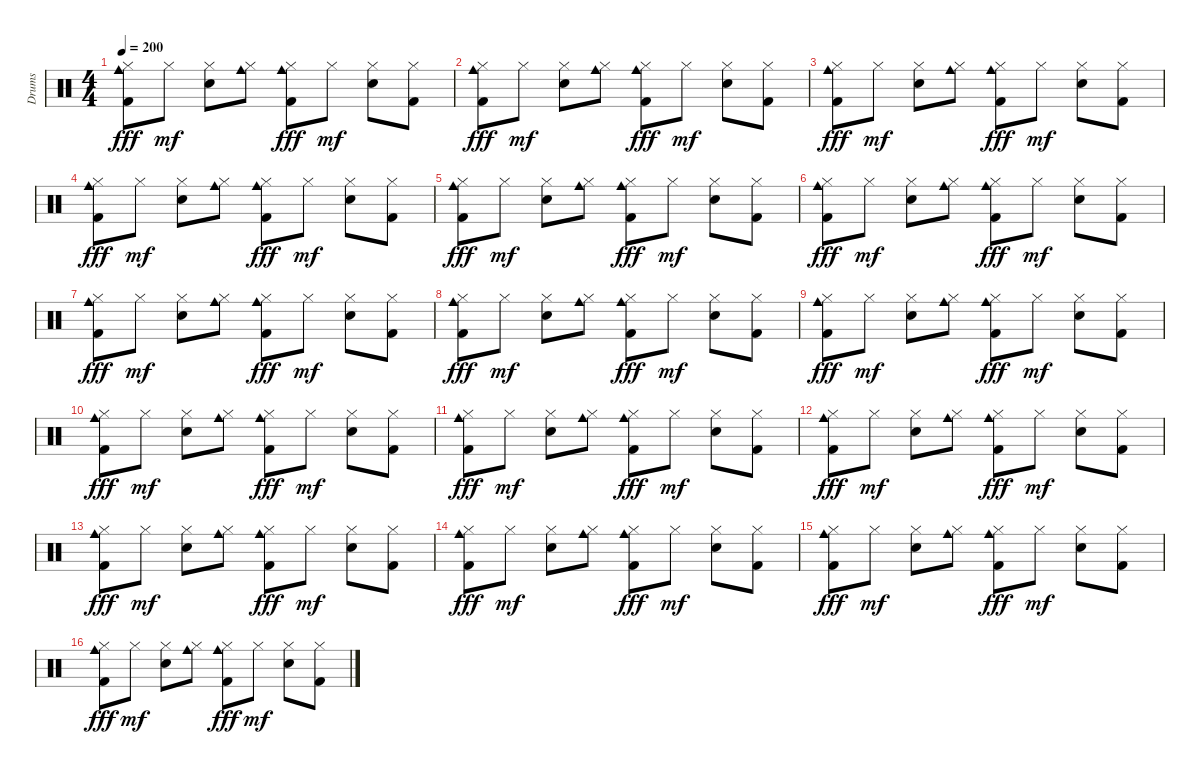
\track ("Drums" "Drums") {instrument percussion}
\staff {score}
\articulation defaults
\ts (4 4)
\tempo 200
\clef neutral
\ks c
("Cowbell medium (hit)" "Hi-Hat (closed)" "Kick (hit) 2").8{dy fff} "Hi-Hat (closed)".8{dy mf} ("Hi-Hat (closed)" "Electric Snare (hit)").8 ("Cowbell medium (hit)" "Hi-Hat (closed)").8 ("Cowbell medium (hit)" "Hi-Hat (closed)" "Kick (hit) 2").8{dy fff} "Hi-Hat (closed)".8{dy mf} ("Hi-Hat (closed)" "Electric Snare (hit)").8 ("Hi-Hat (closed)" "Kick (hit) 2").8 |
("Cowbell medium (hit)" "Hi-Hat (closed)" "Kick (hit) 2").8{dy fff} "Hi-Hat (closed)".8{dy mf} ("Hi-Hat (closed)" "Electric Snare (hit)").8 ("Cowbell medium (hit)" "Hi-Hat (closed)").8 ("Cowbell medium (hit)" "Hi-Hat (closed)" "Kick (hit) 2").8{dy fff} "Hi-Hat (closed)".8{dy mf} ("Hi-Hat (closed)" "Electric Snare (hit)").8 ("Hi-Hat (closed)" "Kick (hit) 2").8 |
("Cowbell medium (hit)" "Hi-Hat (closed)" "Kick (hit) 2").8{dy fff} "Hi-Hat (closed)".8{dy mf} ("Hi-Hat (closed)" "Electric Snare (hit)").8 ("Cowbell medium (hit)" "Hi-Hat (closed)").8 ("Cowbell medium (hit)" "Hi-Hat (closed)" "Kick (hit) 2").8{dy fff} "Hi-Hat (closed)".8{dy mf} ("Hi-Hat (closed)" "Electric Snare (hit)").8 ("Hi-Hat (closed)" "Kick (hit) 2").8 |
("Cowbell medium (hit)" "Hi-Hat (closed)" "Kick (hit) 2").8{dy fff} "Hi-Hat (closed)".8{dy mf} ("Hi-Hat (closed)" "Electric Snare (hit)").8 ("Cowbell medium (hit)" "Hi-Hat (closed)").8 ("Cowbell medium (hit)" "Hi-Hat (closed)" "Kick (hit) 2").8{dy fff} "Hi-Hat (closed)".8{dy mf} ("Hi-Hat (closed)" "Electric Snare (hit)").8 ("Hi-Hat (closed)" "Kick (hit) 2").8 |
("Cowbell medium (hit)" "Hi-Hat (closed)" "Kick (hit) 2").8{dy fff} "Hi-Hat (closed)".8{dy mf} ("Hi-Hat (closed)" "Electric Snare (hit)").8 ("Cowbell medium (hit)" "Hi-Hat (closed)").8 ("Cowbell medium (hit)" "Hi-Hat (closed)" "Kick (hit) 2").8{dy fff} "Hi-Hat (closed)".8{dy mf} ("Hi-Hat (closed)" "Electric Snare (hit)").8 ("Hi-Hat (closed)" "Kick (hit) 2").8 |
("Cowbell medium (hit)" "Hi-Hat (closed)" "Kick (hit) 2").8{dy fff} "Hi-Hat (closed)".8{dy mf} ("Hi-Hat (closed)" "Electric Snare (hit)").8 ("Cowbell medium (hit)" "Hi-Hat (closed)").8 ("Cowbell medium (hit)" "Hi-Hat (closed)" "Kick (hit) 2").8{dy fff} "Hi-Hat (closed)".8{dy mf} ("Hi-Hat (closed)" "Electric Snare (hit)").8 ("Hi-Hat (closed)" "Kick (hit) 2").8 |
("Cowbell medium (hit)" "Hi-Hat (closed)" "Kick (hit) 2").8{dy fff} "Hi-Hat (closed)".8{dy mf} ("Hi-Hat (closed)" "Electric Snare (hit)").8 ("Cowbell medium (hit)" "Hi-Hat (closed)").8 ("Cowbell medium (hit)" "Hi-Hat (closed)" "Kick (hit) 2").8{dy fff} "Hi-Hat (closed)".8{dy mf} ("Hi-Hat (closed)" "Electric Snare (hit)").8 ("Hi-Hat (closed)" "Kick (hit) 2").8 |
("Cowbell medium (hit)" "Hi-Hat (closed)" "Kick (hit) 2").8{dy fff} "Hi-Hat (closed)".8{dy mf} ("Hi-Hat (closed)" "Electric Snare (hit)").8 ("Cowbell medium (hit)" "Hi-Hat (closed)").8 ("Cowbell medium (hit)" "Hi-Hat (closed)" "Kick (hit) 2").8{dy fff} "Hi-Hat (closed)".8{dy mf} ("Hi-Hat (closed)" "Electric Snare (hit)").8 ("Hi-Hat (closed)" "Kick (hit) 2").8 |
("Cowbell medium (hit)" "Hi-Hat (closed)" "Kick (hit) 2").8{dy fff} "Hi-Hat (closed)".8{dy mf} ("Hi-Hat (closed)" "Electric Snare (hit)").8 ("Cowbell medium (hit)" "Hi-Hat (closed)").8 ("Cowbell medium (hit)" "Hi-Hat (closed)" "Kick (hit) 2").8{dy fff} "Hi-Hat (closed)".8{dy mf} ("Hi-Hat (closed)" "Electric Snare (hit)").8 ("Hi-Hat (closed)" "Kick (hit) 2").8 |
("Cowbell medium (hit)" "Hi-Hat (closed)" "Kick (hit) 2").8{dy fff} "Hi-Hat (closed)".8{dy mf} ("Hi-Hat (closed)" "Electric Snare (hit)").8 ("Cowbell medium (hit)" "Hi-Hat (closed)").8 ("Cowbell medium (hit)" "Hi-Hat (closed)" "Kick (hit) 2").8{dy fff} "Hi-Hat (closed)".8{dy mf} ("Hi-Hat (closed)" "Electric Snare (hit)").8 ("Hi-Hat (closed)" "Kick (hit) 2").8 |
("Cowbell medium (hit)" "Hi-Hat (closed)" "Kick (hit) 2").8{dy fff} "Hi-Hat (closed)".8{dy mf} ("Hi-Hat (closed)" "Electric Snare (hit)").8 ("Cowbell medium (hit)" "Hi-Hat (closed)").8 ("Cowbell medium (hit)" "Hi-Hat (closed)" "Kick (hit) 2").8{dy fff} "Hi-Hat (closed)".8{dy mf} ("Hi-Hat (closed)" "Electric Snare (hit)").8 ("Hi-Hat (closed)" "Kick (hit) 2").8 |
("Cowbell medium (hit)" "Hi-Hat (closed)" "Kick (hit) 2").8{dy fff} "Hi-Hat (closed)".8{dy mf} ("Hi-Hat (closed)" "Electric Snare (hit)").8 ("Cowbell medium (hit)" "Hi-Hat (closed)").8 ("Cowbell medium (hit)" "Hi-Hat (closed)" "Kick (hit) 2").8{dy fff} "Hi-Hat (closed)".8{dy mf} ("Hi-Hat (closed)" "Electric Snare (hit)").8 ("Hi-Hat (closed)" "Kick (hit) 2").8 |
("Cowbell medium (hit)" "Hi-Hat (closed)" "Kick (hit) 2").8{dy fff} "Hi-Hat (closed)".8{dy mf} ("Hi-Hat (closed)" "Electric Snare (hit)").8 ("Cowbell medium (hit)" "Hi-Hat (closed)").8 ("Cowbell medium (hit)" "Hi-Hat (closed)" "Kick (hit) 2").8{dy fff} "Hi-Hat (closed)".8{dy mf} ("Hi-Hat (closed)" "Electric Snare (hit)").8 ("Hi-Hat (closed)" "Kick (hit) 2").8 |
("Cowbell medium (hit)" "Hi-Hat (closed)" "Kick (hit) 2").8{dy fff} "Hi-Hat (closed)".8{dy mf} ("Hi-Hat (closed)" "Electric Snare (hit)").8 ("Cowbell medium (hit)" "Hi-Hat (closed)").8 ("Cowbell medium (hit)" "Hi-Hat (closed)" "Kick (hit) 2").8{dy fff} "Hi-Hat (closed)".8{dy mf} ("Hi-Hat (closed)" "Electric Snare (hit)").8 ("Hi-Hat (closed)" "Kick (hit) 2").8 |
("Cowbell medium (hit)" "Hi-Hat (closed)" "Kick (hit) 2").8{dy fff} "Hi-Hat (closed)".8{dy mf} ("Hi-Hat (closed)" "Electric Snare (hit)").8 ("Cowbell medium (hit)" "Hi-Hat (closed)").8 ("Cowbell medium (hit)" "Hi-Hat (closed)" "Kick (hit) 2").8{dy fff} "Hi-Hat (closed)".8{dy mf} ("Hi-Hat (closed)" "Electric Snare (hit)").8 ("Hi-Hat (closed)" "Kick (hit) 2").8 |
("Cowbell medium (hit)" "Hi-Hat (closed)" "Kick (hit) 2").8{dy fff} "Hi-Hat (closed)".8{dy mf} ("Hi-Hat (closed)" "Electric Snare (hit)").8 ("Cowbell medium (hit)" "Hi-Hat (closed)").8 ("Cowbell medium (hit)" "Hi-Hat (closed)" "Kick (hit) 2").8{dy fff} "Hi-Hat (closed)".8{dy mf} ("Hi-Hat (closed)" "Electric Snare (hit)").8 ("Hi-Hat (closed)" "Kick (hit) 2").8
